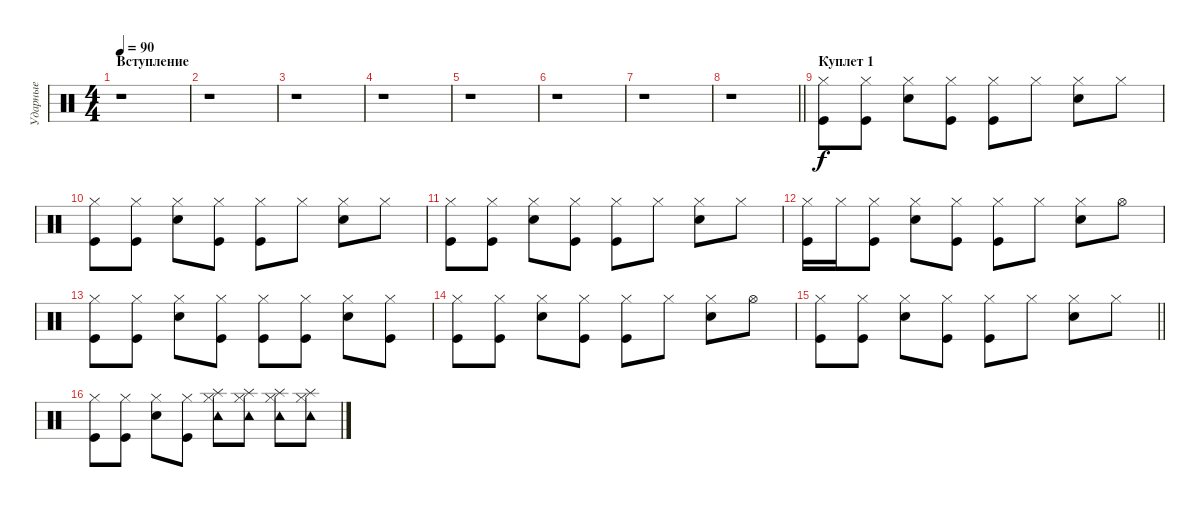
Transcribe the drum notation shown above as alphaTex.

\track ("Ударные" "Ударные") {instrument percussion}
\staff {score}
\articulation defaults
\ts (4 4)
\section ("" "Вcтупление")
\tempo 90
\clef neutral
\ks c
r.1{dy f} |
r.1 |
r.1 |
r.1 |
r.1 |
r.1 |
r.1 |
\barLineRight lightlight
r.1 |
\section ("" "Куплет 1")
("Hi-Hat (closed)" "Kick (hit)").8 ("Hi-Hat (closed)" "Kick (hit)").8 ("Hi-Hat (closed)" "Snare (hit) 2").8 ("Hi-Hat (closed)" "Kick (hit)").8 ("Hi-Hat (closed)" "Kick (hit)").8 "Hi-Hat (closed)".8 ("Hi-Hat (closed)" "Snare (hit) 2").8 "Hi-Hat (closed)".8 |
("Hi-Hat (closed)" "Kick (hit)").8 ("Hi-Hat (closed)" "Kick (hit)").8 ("Hi-Hat (closed)" "Snare (hit) 2").8 ("Hi-Hat (closed)" "Kick (hit)").8 ("Hi-Hat (closed)" "Kick (hit)").8 "Hi-Hat (closed)".8 ("Hi-Hat (closed)" "Snare (hit) 2").8 "Hi-Hat (closed)".8 |
("Hi-Hat (closed)" "Kick (hit)").8 ("Hi-Hat (closed)" "Kick (hit)").8 ("Hi-Hat (closed)" "Snare (hit) 2").8 ("Hi-Hat (closed)" "Kick (hit)").8 ("Hi-Hat (closed)" "Kick (hit)").8 "Hi-Hat (closed)".8 ("Hi-Hat (closed)" "Snare (hit) 2").8 "Hi-Hat (closed)".8 |
("Hi-Hat (closed)" "Kick (hit)").16 "Hi-Hat (closed)".16 ("Hi-Hat (closed)" "Kick (hit)").8 ("Hi-Hat (closed)" "Snare (hit) 2").8 ("Hi-Hat (closed)" "Kick (hit)").8 ("Hi-Hat (closed)" "Kick (hit)").8 "Hi-Hat (closed)".8 ("Hi-Hat (closed)" "Snare (hit) 2").8 "Hi-Hat (open)".8 |
("Hi-Hat (closed)" "Kick (hit)").8 ("Hi-Hat (closed)" "Kick (hit)").8 ("Hi-Hat (closed)" "Snare (hit) 2").8 ("Hi-Hat (closed)" "Kick (hit)").8 ("Hi-Hat (closed)" "Kick (hit)").8 ("Hi-Hat (closed)" "Kick (hit)").8 ("Hi-Hat (closed)" "Snare (hit) 2").8 ("Hi-Hat (closed)" "Kick (hit)").8 |
("Hi-Hat (closed)" "Kick (hit)").8 ("Hi-Hat (closed)" "Kick (hit)").8 ("Hi-Hat (closed)" "Snare (hit) 2").8 ("Hi-Hat (closed)" "Kick (hit)").8 ("Hi-Hat (closed)" "Kick (hit)").8 "Hi-Hat (closed)".8 ("Hi-Hat (closed)" "Snare (hit) 2").8 "Hi-Hat (open)".8 |
\barLineRight lightlight
("Hi-Hat (closed)" "Kick (hit)").8 ("Hi-Hat (closed)" "Kick (hit)").8 ("Hi-Hat (closed)" "Snare (hit) 2").8 ("Hi-Hat (closed)" "Kick (hit)").8 ("Hi-Hat (closed)" "Kick (hit)").8 "Hi-Hat (closed)".8 ("Hi-Hat (closed)" "Snare (hit) 2").8 "Hi-Hat (closed)".8 |
("Hi-Hat (closed)" "Kick (hit)").8 ("Hi-Hat (closed)" "Kick (hit)").8 ("Hi-Hat (closed)" "Snare (hit) 2").8 ("Hi-Hat (closed)" "Kick (hit)").8 ("Splash (hit)" "Tambourine (hit)" "Hi-Hat (closed)").8 ("Splash (hit)" "Hi-Hat (closed)" "Tambourine (hit)").8 ("Splash (hit)" "Hi-Hat (closed)" "Tambourine (hit)").8 ("Splash (hit)" "Hi-Hat (closed)" "Tambourine (hit)").8
